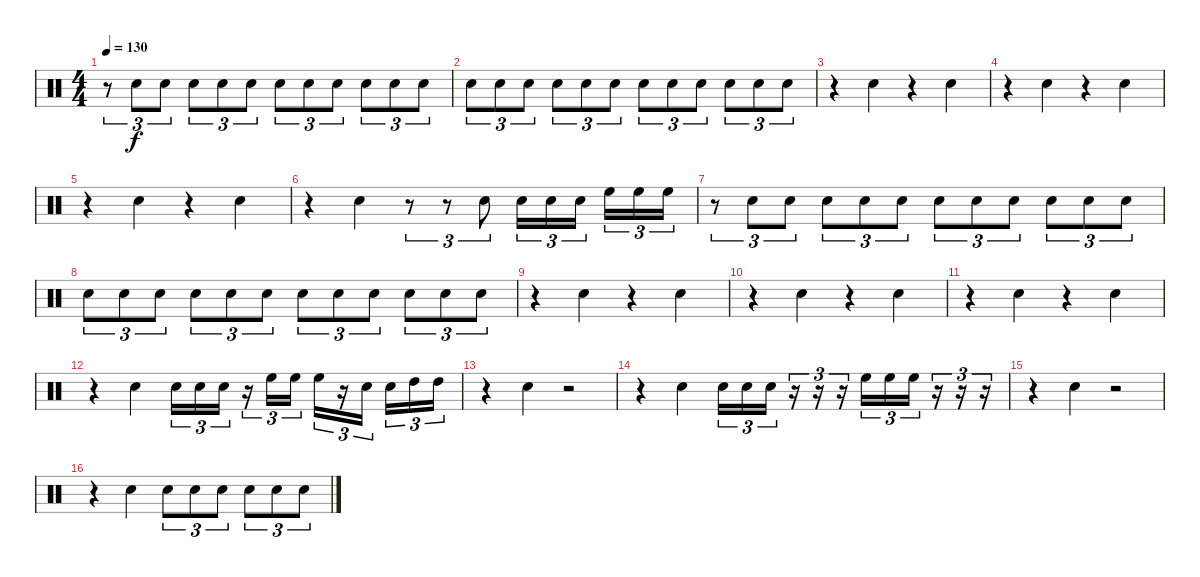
\track "" {instrument percussion}
\staff {score}
\articulation defaults
\ts (4 4)
\tempo 130
\clef neutral
\ks c
r.8{tu (3 2) dy f} "Electric Snare (hit)".8{tu (3 2)} "Electric Snare (hit)".8{tu (3 2)} "Electric Snare (hit)".8{tu (3 2)} "Electric Snare (hit)".8{tu (3 2)} "Electric Snare (hit)".8{tu (3 2)} "Electric Snare (hit)".8{tu (3 2)} "Electric Snare (hit)".8{tu (3 2)} "Electric Snare (hit)".8{tu (3 2)} "Electric Snare (hit)".8{tu (3 2)} "Electric Snare (hit)".8{tu (3 2)} "Electric Snare (hit)".8{tu (3 2)} |
"Electric Snare (hit)".8{tu (3 2)} "Electric Snare (hit)".8{tu (3 2)} "Electric Snare (hit)".8{tu (3 2)} "Electric Snare (hit)".8{tu (3 2)} "Electric Snare (hit)".8{tu (3 2)} "Electric Snare (hit)".8{tu (3 2)} "Electric Snare (hit)".8{tu (3 2)} "Electric Snare (hit)".8{tu (3 2)} "Electric Snare (hit)".8{tu (3 2)} "Electric Snare (hit)".8{tu (3 2)} "Electric Snare (hit)".8{tu (3 2)} "Electric Snare (hit)".8{tu (3 2)} |
r.4 "Electric Snare (hit)".4 r.4 "Electric Snare (hit)".4 |
r.4 "Electric Snare (hit)".4 r.4 "Electric Snare (hit)".4 |
r.4 "Electric Snare (hit)".4 r.4 "Electric Snare (hit)".4 |
r.4 "Electric Snare (hit)".4 r.8{tu (3 2)} r.8{tu (3 2)} "Electric Snare (hit)".8{tu (3 2)} "Electric Snare (hit)".16{tu (3 2)} "Electric Snare (hit)".16{tu (3 2)} "Electric Snare (hit)".16{tu (3 2)} "High Floor Tom (hit)".16{tu (3 2)} "High Floor Tom (hit)".16{tu (3 2)} "High Floor Tom (hit)".16{tu (3 2)} |
r.8{tu (3 2)} "Electric Snare (hit)".8{tu (3 2)} "Electric Snare (hit)".8{tu (3 2)} "Electric Snare (hit)".8{tu (3 2)} "Electric Snare (hit)".8{tu (3 2)} "Electric Snare (hit)".8{tu (3 2)} "Electric Snare (hit)".8{tu (3 2)} "Electric Snare (hit)".8{tu (3 2)} "Electric Snare (hit)".8{tu (3 2)} "Electric Snare (hit)".8{tu (3 2)} "Electric Snare (hit)".8{tu (3 2)} "Electric Snare (hit)".8{tu (3 2)} |
"Electric Snare (hit)".8{tu (3 2)} "Electric Snare (hit)".8{tu (3 2)} "Electric Snare (hit)".8{tu (3 2)} "Electric Snare (hit)".8{tu (3 2)} "Electric Snare (hit)".8{tu (3 2)} "Electric Snare (hit)".8{tu (3 2)} "Electric Snare (hit)".8{tu (3 2)} "Electric Snare (hit)".8{tu (3 2)} "Electric Snare (hit)".8{tu (3 2)} "Electric Snare (hit)".8{tu (3 2)} "Electric Snare (hit)".8{tu (3 2)} "Electric Snare (hit)".8{tu (3 2)} |
r.4 "Electric Snare (hit)".4 r.4 "Electric Snare (hit)".4 |
r.4 "Electric Snare (hit)".4 r.4 "Electric Snare (hit)".4 |
r.4 "Electric Snare (hit)".4 r.4 "Electric Snare (hit)".4 |
r.4 "Electric Snare (hit)".4 "Electric Snare (hit)".16{tu (3 2)} "Electric Snare (hit)".16{tu (3 2)} "Electric Snare (hit)".16{tu (3 2)} r.16{tu (3 2)} "High Floor Tom (hit)".16{tu (3 2)} "High Floor Tom (hit)".16{tu (3 2)} "High Floor Tom (hit)".16{tu (3 2)} r.16{tu (3 2)} "Electric Snare (hit)".16{tu (3 2)} "Electric Snare (hit)".16{tu (3 2)} "High Tom (hit)".16{tu (3 2)} "High Tom (hit)".16{tu (3 2)} |
r.4 "Electric Snare (hit)".4 r.2 |
r.4 "Electric Snare (hit)".4 "Electric Snare (hit)".16{tu (3 2)} "Electric Snare (hit)".16{tu (3 2)} "Electric Snare (hit)".16{tu (3 2)} r.16{tu (3 2)} r.16{tu (3 2)} r.16{tu (3 2)} "High Floor Tom (hit)".16{tu (3 2)} "High Floor Tom (hit)".16{tu (3 2)} "High Floor Tom (hit)".16{tu (3 2)} r.16{tu (3 2)} r.16{tu (3 2)} r.16{tu (3 2)} |
r.4 "Electric Snare (hit)".4 r.2 |
r.4 "Electric Snare (hit)".4 "Electric Snare (hit)".8{tu (3 2)} "Electric Snare (hit)".8{tu (3 2)} "Electric Snare (hit)".8{tu (3 2)} "Electric Snare (hit)".8{tu (3 2)} "Electric Snare (hit)".8{tu (3 2)} "Electric Snare (hit)".8{tu (3 2)}
